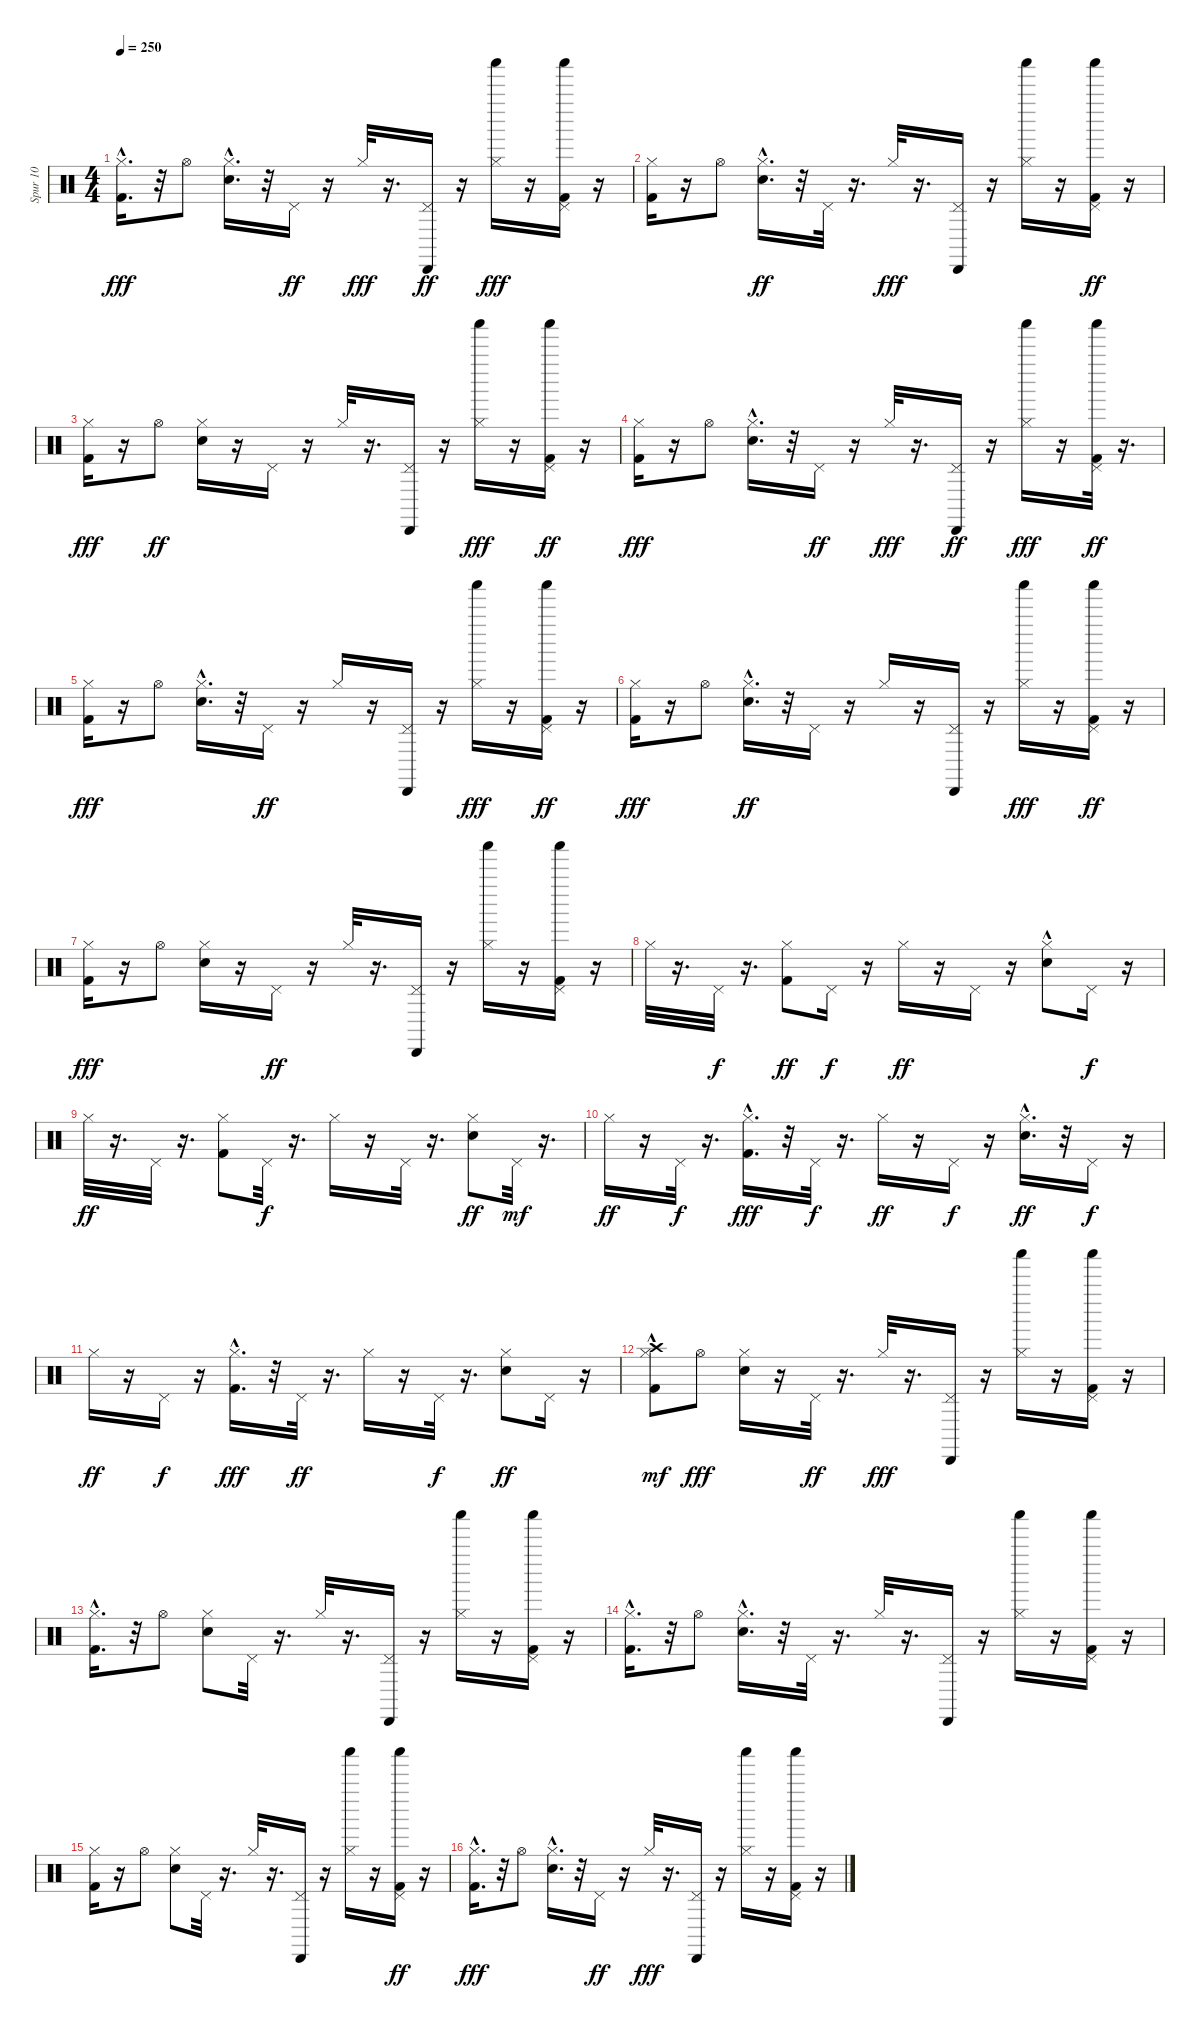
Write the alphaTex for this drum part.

\track ("Spur 10" "Spur 10") {instrument percussion}
\staff {score}
\articulation defaults
\ts (4 4)
\tempo 250
\clef neutral
\ks c
("Kick (hit) 2"{hac} "Hi-Hat (closed)").16{d dy fff} r.32 "Hi-Hat (open)".8 ("Snare (hit) 2"{hac} "Hi-Hat (closed)").16{d} r.32 "Pedal Hi-Hat (hit)".16{dy ff} r.16 "Hi-Hat (closed)".32{dy fff} r.16{d} ("Pedal Hi-Hat (hit)" "Cabasa (hit)").16{dy ff} r.16 ("Hi-Hat (closed)" "Shaker (hit)").16{dy fff} r.16 ("Kick (hit) 2" "Pedal Hi-Hat (hit)" "Shaker (hit)").16 r.16 |
("Kick (hit) 2" "Hi-Hat (closed)").16 r.16 "Hi-Hat (open)".8 ("Snare (hit) 2"{hac} "Hi-Hat (closed)").16{d dy ff} r.32 "Pedal Hi-Hat (hit)".32 r.16{d} "Hi-Hat (closed)".32{dy fff} r.16{d} ("Pedal Hi-Hat (hit)" "Cabasa (hit)").16 r.16 ("Hi-Hat (closed)" "Shaker (hit)").16 r.16 ("Kick (hit) 2" "Pedal Hi-Hat (hit)" "Shaker (hit)").16{dy ff} r.16 |
("Kick (hit) 2" "Hi-Hat (closed)").16{dy fff} r.16 "Hi-Hat (open)".8{dy ff} ("Snare (hit) 2" "Hi-Hat (closed)").16 r.16 "Pedal Hi-Hat (hit)".16 r.16 "Hi-Hat (closed)".32 r.16{d} ("Pedal Hi-Hat (hit)" "Cabasa (hit)").16 r.16 ("Hi-Hat (closed)" "Shaker (hit)").16{dy fff} r.16 ("Kick (hit) 2" "Pedal Hi-Hat (hit)" "Shaker (hit)").16{dy ff} r.16 |
("Kick (hit) 2" "Hi-Hat (closed)").16{dy fff} r.16 "Hi-Hat (open)".8 ("Snare (hit) 2"{hac} "Hi-Hat (closed)").16{d} r.32 "Pedal Hi-Hat (hit)".16{dy ff} r.16 "Hi-Hat (closed)".32{dy fff} r.16{d} ("Pedal Hi-Hat (hit)" "Cabasa (hit)").16{dy ff} r.16 ("Hi-Hat (closed)" "Shaker (hit)").16{dy fff} r.16 ("Kick (hit) 2" "Pedal Hi-Hat (hit)" "Shaker (hit)").32{dy ff} r.16{d} |
("Kick (hit) 2" "Hi-Hat (closed)").16{dy fff} r.16 "Hi-Hat (open)".8 ("Snare (hit) 2"{hac} "Hi-Hat (closed)").16{d} r.32 "Pedal Hi-Hat (hit)".16{dy ff} r.16 "Hi-Hat (closed)".16 r.16 ("Pedal Hi-Hat (hit)" "Cabasa (hit)").16 r.16 ("Hi-Hat (closed)" "Shaker (hit)").16{dy fff} r.16 ("Kick (hit) 2" "Pedal Hi-Hat (hit)" "Shaker (hit)").16{dy ff} r.16 |
("Kick (hit) 2" "Hi-Hat (closed)").16{dy fff} r.16 "Hi-Hat (open)".8 ("Snare (hit) 2"{hac} "Hi-Hat (closed)").16{d dy ff} r.32 "Pedal Hi-Hat (hit)".16 r.16 "Hi-Hat (closed)".16 r.16 ("Pedal Hi-Hat (hit)" "Cabasa (hit)").16 r.16 ("Hi-Hat (closed)" "Shaker (hit)").16{dy fff} r.16 ("Kick (hit) 2" "Pedal Hi-Hat (hit)" "Shaker (hit)").16{dy ff} r.16 |
("Kick (hit) 2" "Hi-Hat (closed)").16{dy fff} r.16 "Hi-Hat (open)".8 ("Snare (hit) 2" "Hi-Hat (closed)").16 r.16 "Pedal Hi-Hat (hit)".16{dy ff} r.16 "Hi-Hat (closed)".32 r.16{d} ("Pedal Hi-Hat (hit)" "Cabasa (hit)").16 r.16 ("Hi-Hat (closed)" "Shaker (hit)").16 r.16 ("Kick (hit) 2" "Pedal Hi-Hat (hit)" "Shaker (hit)").16 r.16 |
"Hi-Hat (closed)".32 r.16{d} "Pedal Hi-Hat (hit)".32{dy f} r.16{d} ("Kick (hit) 2" "Hi-Hat (closed)").8{dy ff} "Pedal Hi-Hat (hit)".16{dy f} r.16 "Hi-Hat (closed)".16{dy ff} r.16 "Pedal Hi-Hat (hit)".16 r.16 ("Snare (hit) 2"{hac} "Hi-Hat (closed)").8 "Pedal Hi-Hat (hit)".16{dy f} r.16 |
"Hi-Hat (closed)".32{dy ff} r.16{d} "Pedal Hi-Hat (hit)".32 r.16{d} ("Kick (hit) 2" "Hi-Hat (closed)").8 "Pedal Hi-Hat (hit)".32{dy f} r.16{d} "Hi-Hat (closed)".16 r.16 "Pedal Hi-Hat (hit)".32 r.16{d} ("Snare (hit) 2" "Hi-Hat (closed)").8{dy ff} "Pedal Hi-Hat (hit)".32{dy mf} r.16{d} |
"Hi-Hat (closed)".16{dy ff} r.16 "Pedal Hi-Hat (hit)".32{dy f} r.16{d} ("Kick (hit) 2"{hac} "Hi-Hat (closed)").16{d dy fff} r.32 "Pedal Hi-Hat (hit)".32{dy f} r.16{d} "Hi-Hat (closed)".16{dy ff} r.16 "Pedal Hi-Hat (hit)".16{dy f} r.16 ("Snare (hit) 2"{hac} "Hi-Hat (closed)").16{d dy ff} r.32 "Pedal Hi-Hat (hit)".16{dy f} r.16 |
"Hi-Hat (closed)".16{dy ff} r.16 "Pedal Hi-Hat (hit)".16{dy f} r.16 ("Kick (hit) 2"{hac} "Hi-Hat (closed)").16{d dy fff} r.32 "Pedal Hi-Hat (hit)".32{dy ff} r.16{d} "Hi-Hat (closed)".16 r.16 "Pedal Hi-Hat (hit)".32{dy f} r.16{d} ("Snare (hit) 2" "Hi-Hat (closed)").8{dy ff} "Pedal Hi-Hat (hit)".16 r.16 |
("Kick (hit) 2"{hac} "Hi-Hat (closed)" "Crash high (hit)").8{dy mf} "Hi-Hat (open)".8{dy fff} ("Snare (hit) 2" "Hi-Hat (closed)").16 r.16 "Pedal Hi-Hat (hit)".32{dy ff} r.16{d} "Hi-Hat (closed)".32{dy fff} r.16{d} ("Pedal Hi-Hat (hit)" "Cabasa (hit)").16 r.16 ("Hi-Hat (closed)" "Shaker (hit)").16 r.16 ("Kick (hit) 2" "Pedal Hi-Hat (hit)" "Shaker (hit)").16 r.16 |
("Kick (hit) 2"{hac} "Hi-Hat (closed)").16{d} r.32 "Hi-Hat (open)".8 ("Snare (hit) 2" "Hi-Hat (closed)").8 "Pedal Hi-Hat (hit)".32 r.16{d} "Hi-Hat (closed)".32 r.16{d} ("Pedal Hi-Hat (hit)" "Cabasa (hit)").16 r.16 ("Hi-Hat (closed)" "Shaker (hit)").16 r.16 ("Kick (hit) 2" "Pedal Hi-Hat (hit)" "Shaker (hit)").16 r.16 |
("Kick (hit) 2"{hac} "Hi-Hat (closed)").16{d} r.32 "Hi-Hat (open)".8 ("Snare (hit) 2"{hac} "Hi-Hat (closed)").16{d} r.32 "Pedal Hi-Hat (hit)".32 r.16{d} "Hi-Hat (closed)".32 r.16{d} ("Pedal Hi-Hat (hit)" "Cabasa (hit)").16 r.16 ("Hi-Hat (closed)" "Shaker (hit)").16 r.16 ("Kick (hit) 2" "Pedal Hi-Hat (hit)" "Shaker (hit)").16 r.16 |
("Kick (hit) 2" "Hi-Hat (closed)").16 r.16 "Hi-Hat (open)".8 ("Snare (hit) 2" "Hi-Hat (closed)").8 "Pedal Hi-Hat (hit)".32 r.16{d} "Hi-Hat (closed)".32 r.16{d} ("Pedal Hi-Hat (hit)" "Cabasa (hit)").16 r.16 ("Hi-Hat (closed)" "Shaker (hit)").16 r.16 ("Kick (hit) 2" "Pedal Hi-Hat (hit)" "Shaker (hit)").16{dy ff} r.16 |
("Kick (hit) 2"{hac} "Hi-Hat (closed)").16{d dy fff} r.32 "Hi-Hat (open)".8 ("Snare (hit) 2"{hac} "Hi-Hat (closed)").16{d} r.32 "Pedal Hi-Hat (hit)".16{dy ff} r.16 "Hi-Hat (closed)".32{dy fff} r.16{d} ("Pedal Hi-Hat (hit)" "Cabasa (hit)").16 r.16 ("Hi-Hat (closed)" "Shaker (hit)").16 r.16 ("Kick (hit) 2" "Pedal Hi-Hat (hit)" "Shaker (hit)").16 r.16
